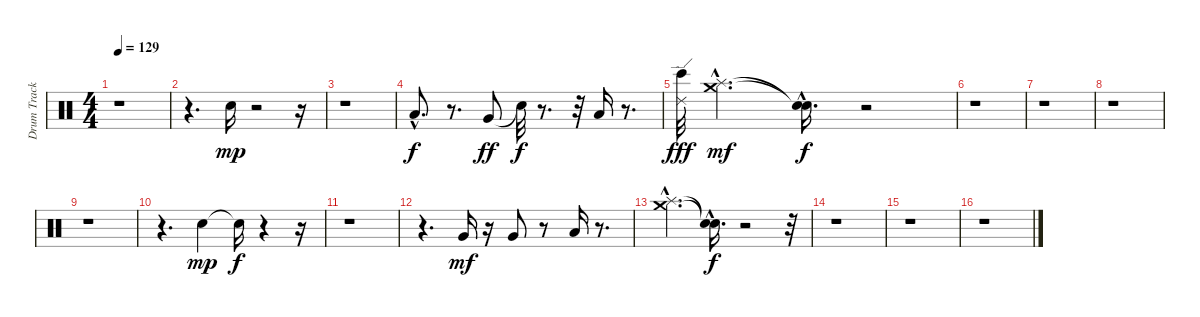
\track ("Drum Track 2" "Drum Track") {instrument percussion}
\staff {score}
\articulation defaults
\ts (4 4)
\tempo 129
\clef neutral
\ks c
r.1{dy f} |
r.4{d} "Snare (hit) 2".16{dy mp} r.2 r.16 |
r.1 |
"Low Tom (hit)"{hac}.8{d dy f} r.8{d} "Very Low Tom (hit)".8{dy ff} "Snare (hit)"{t}.32{dy f} r.8{d} r.32 "Low Floor Tom (hit)".16 r.8{d} |
("Bongo High (hit)" "Ride (edge) 2").32{dy fff} ("Crash medium (hit)"{hac} "Splash (hit)"{hac}).4{d dy mf} ("Snare (hit)"{hac t} "Snare (hit)"{hac t}).16{d dy f} r.2 |
r.1 |
r.1 |
r.1 |
r.1 |
r.4{d} "Snare (hit) 2".4{dy mp} "Snare (hit)"{t}.16{dy f} r.4 r.16 |
r.1 |
r.4{d} "Very Low Tom (hit)".16{dy mf} r.16 "Very Low Tom (hit)".8 r.8 "Low Floor Tom (hit)".16 r.8{d} |
("Crash medium (hit)"{hac} "Splash (hit)"{hac}).4{d} ("Snare (hit)"{hac t} "Snare (hit)"{hac t}).16{d dy f} r.2 r.32 |
r.1 |
r.1 |
r.1
